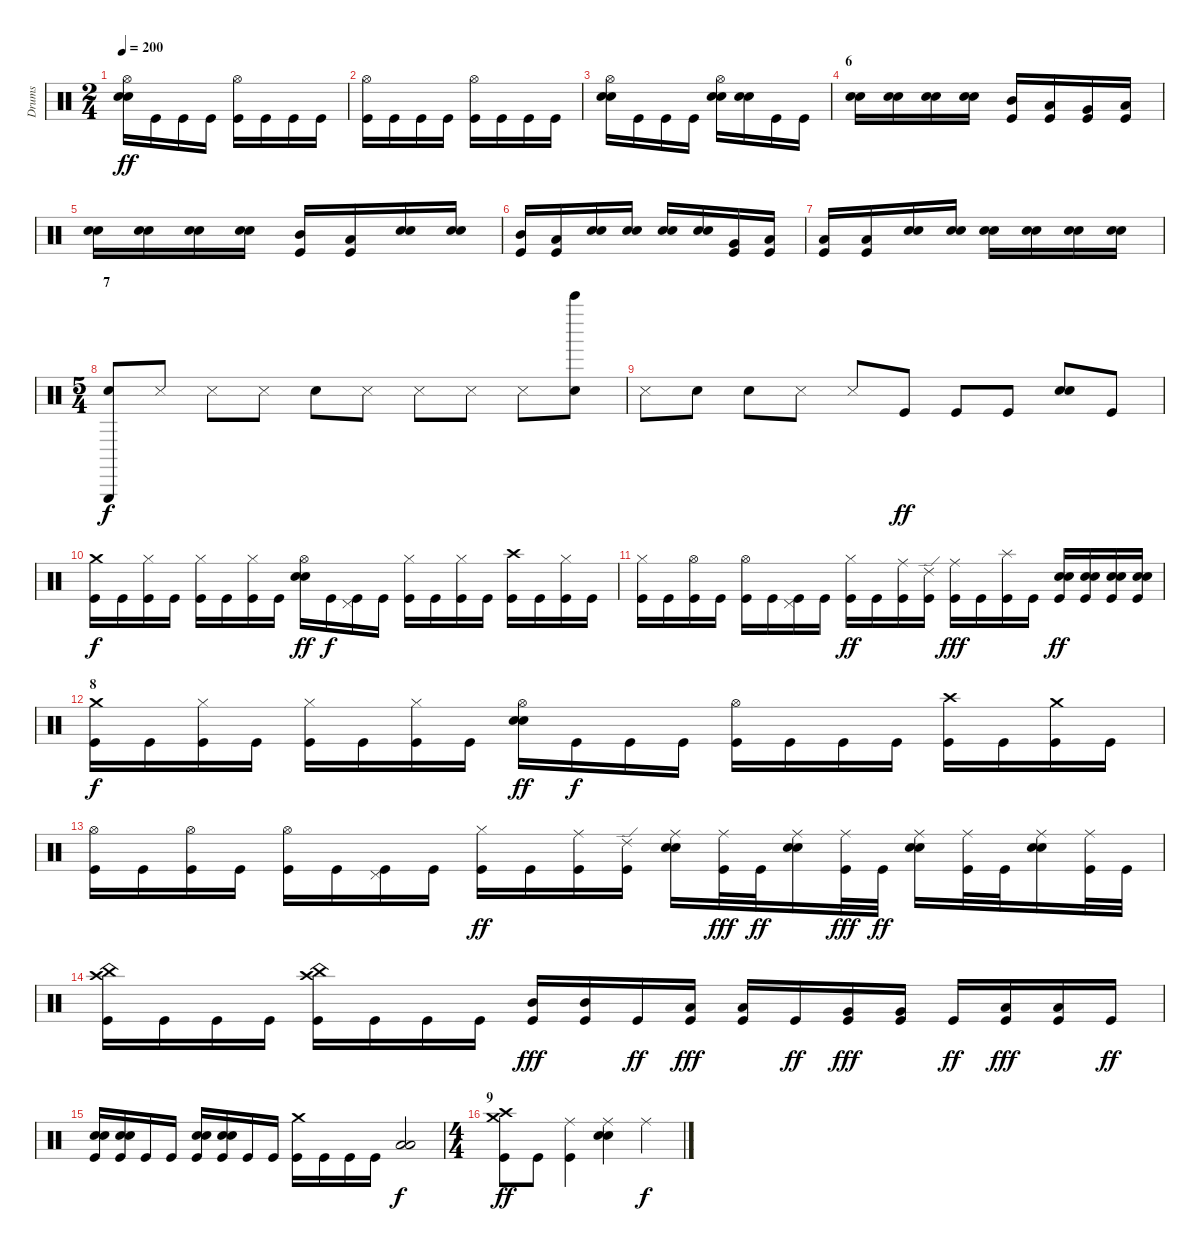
\track ("Drums" "Drums") {instrument percussion}
\staff {score}
\articulation defaults
\ts (2 4)
\tempo 200
\clef neutral
\ks c
("Electric Snare (hit)" "Electric Snare (hit)" "Hi-Hat (open)").16{dy ff} "Kick (hit)".16 "Kick (hit)".16 "Kick (hit)".16 ("Kick (hit)" "Hi-Hat (open)").16 "Kick (hit)".16 "Kick (hit)".16 "Kick (hit)".16 |
("Kick (hit)" "Hi-Hat (open)").16 "Kick (hit)".16 "Kick (hit)".16 "Kick (hit)".16 ("Kick (hit)" "Hi-Hat (open)").16 "Kick (hit)".16 "Kick (hit)".16 "Kick (hit)".16 |
("Electric Snare (hit)" "Electric Snare (hit)" "Hi-Hat (open)").16 "Kick (hit)".16 "Kick (hit)".16 "Kick (hit)".16 ("Electric Snare (hit)" "Electric Snare (hit)" "Hi-Hat (open)").16 ("Electric Snare (hit)" "Electric Snare (hit)").16 "Kick (hit)".16 "Kick (hit)".16 |
\section ("" "6")
("Electric Snare (hit)" "Electric Snare (hit)").16 ("Electric Snare (hit)" "Electric Snare (hit)").16 ("Electric Snare (hit)" "Electric Snare (hit)").16 ("Electric Snare (hit)" "Electric Snare (hit)").16 ("Kick (hit)" "Mid Tom (hit)").16 ("Kick (hit)" "Low Tom (hit)").16 ("Kick (hit)" "Very Low Tom (hit)").16 ("Kick (hit)" "Low Floor Tom (hit)").16 |
("Electric Snare (hit)" "Electric Snare (hit)").16 ("Electric Snare (hit)" "Electric Snare (hit)").16 ("Electric Snare (hit)" "Electric Snare (hit)").16 ("Electric Snare (hit)" "Electric Snare (hit)").16 ("Kick (hit)" "Mid Tom (hit)").16 ("Kick (hit)" "Low Tom (hit)").16 ("Electric Snare (hit)" "Electric Snare (hit)").16 ("Electric Snare (hit)" "Electric Snare (hit)").16 |
("Kick (hit)" "Mid Tom (hit)").16 ("Kick (hit)" "Low Tom (hit)").16 ("Electric Snare (hit)" "Electric Snare (hit)").16 ("Electric Snare (hit)" "Electric Snare (hit)").16 ("Electric Snare (hit)" "Electric Snare (hit)").16 ("Electric Snare (hit)" "Electric Snare (hit)").16 ("Kick (hit)" "Very Low Tom (hit)").16 ("Kick (hit)" "Low Floor Tom (hit)").16 |
("Kick (hit)" "Low Floor Tom (hit)").16 ("Kick (hit)" "Low Floor Tom (hit)").16 ("Electric Snare (hit)" "Electric Snare (hit)").16 ("Electric Snare (hit)" "Electric Snare (hit)").16 ("Electric Snare (hit)" "Electric Snare (hit)").16 ("Electric Snare (hit)" "Electric Snare (hit)").16 ("Electric Snare (hit)" "Electric Snare (hit)").16 ("Electric Snare (hit)" "Electric Snare (hit)").16 |
\ts (5 4)
\section ("" "7")
("Metronome (bell)" "Triangle (hit)").8{dy f} "Metronome (hit)".8 "Metronome (hit)".8 "Metronome (hit)".8 "Metronome (bell)".8 "Metronome (hit)".8 "Metronome (hit)".8 "Metronome (hit)".8 "Metronome (hit)".8 ("Metronome (bell)" "Bell Tree (hit)").8 |
"Metronome (hit)".8 "Metronome (bell)".8 "Metronome (bell)".8 "Metronome (hit)".8 "Metronome (hit)".8 "Kick (hit)".8{dy ff} "Kick (hit)".8 "Kick (hit)".8 ("Electric Snare (hit)" "Electric Snare (hit)").8 "Kick (hit)".8 |
("Kick (hit)" "Crash medium (hit)").16{dy f} "Kick (hit)".16 ("Kick (hit)" "Hi-Hat (closed)").16 "Kick (hit)".16 ("Kick (hit)" "Hi-Hat (closed)").16 "Kick (hit)".16 ("Kick (hit)" "Hi-Hat (closed)").16 "Kick (hit)".16 ("Electric Snare (hit)" "Electric Snare (hit)" "Hi-Hat (open)").16{dy ff} "Kick (hit)".16{dy f} ("Kick (hit)" "Pedal Hi-Hat (hit)").16 "Kick (hit)".16 ("Kick (hit)" "Hi-Hat (closed)").16 "Kick (hit)".16 ("Kick (hit)" "Hi-Hat (closed)").16 "Kick (hit)".16 ("Kick (hit)" "Crash high (hit)").16 "Kick (hit)".16 ("Kick (hit)" "Hi-Hat (closed)").16 "Kick (hit)".16 |
("Kick (hit)" "Hi-Hat (closed)").16 "Kick (hit)".16 ("Kick (hit)" "Hi-Hat (open)").16 "Kick (hit)".16 ("Kick (hit)" "Hi-Hat (open)").16 "Kick (hit)".16 ("Kick (hit)" "Pedal Hi-Hat (hit)").16 "Kick (hit)".16 ("Kick (hit)" "Hi-Hat (closed)").16{dy ff} "Kick (hit)".16 ("Kick (hit)" "Ride (middle)").16 ("Kick (hit)" "Ride (edge) 2").16 ("Kick (hit)" "Ride (middle)").16{dy fff} "Kick (hit)".16 ("Kick (hit)" "Splash (hit)").16 "Kick (hit)".16 ("Kick (hit)" "Electric Snare (hit)" "Electric Snare (hit)").16{dy ff} ("Kick (hit)" "Electric Snare (hit)" "Electric Snare (hit)").16 ("Kick (hit)" "Electric Snare (hit)" "Electric Snare (hit)").16 ("Kick (hit)" "Electric Snare (hit)" "Electric Snare (hit)").16 |
\section ("" "8")
("Kick (hit)" "Crash medium (hit)").16{dy f} "Kick (hit)".16 ("Kick (hit)" "Hi-Hat (closed)").16 "Kick (hit)".16 ("Kick (hit)" "Hi-Hat (closed)").16 "Kick (hit)".16 ("Kick (hit)" "Hi-Hat (closed)").16 "Kick (hit)".16 ("Electric Snare (hit)" "Electric Snare (hit)" "Hi-Hat (open)").16{dy ff} "Kick (hit)".16{dy f} "Kick (hit)".16 "Kick (hit)".16 ("Kick (hit)" "Hi-Hat (open)").16 "Kick (hit)".16 "Kick (hit)".16 "Kick (hit)".16 ("Kick (hit)" "Crash high (hit)").16 "Kick (hit)".16 ("Kick (hit)" "Crash medium (hit)").16 "Kick (hit)".16 |
("Kick (hit)" "Hi-Hat (open)").16 "Kick (hit)".16 ("Kick (hit)" "Hi-Hat (open)").16 "Kick (hit)".16 ("Kick (hit)" "Hi-Hat (open)").16 "Kick (hit)".16 ("Kick (hit)" "Pedal Hi-Hat (hit)").16 "Kick (hit)".16 ("Kick (hit)" "Hi-Hat (closed)").16{dy ff} "Kick (hit)".16 ("Kick (hit)" "Ride (middle)").16 ("Kick (hit)" "Ride (edge) 2").16 ("Electric Snare (hit)" "Electric Snare (hit)" "Ride (middle)").16 ("Kick (hit)" "Ride (middle)").32{dy fff} "Kick (hit)".32{dy ff} ("Electric Snare (hit)" "Electric Snare (hit)" "Ride (middle)").16 ("Kick (hit)" "Ride (middle)").32{dy fff} "Kick (hit)".32{dy ff} ("Electric Snare (hit)" "Electric Snare (hit)" "Ride (middle)").16 ("Kick (hit)" "Ride (middle)").32 "Kick (hit)".32 ("Electric Snare (hit)" "Electric Snare (hit)" "Ride (middle)").16 ("Kick (hit)" "Ride (middle)").32 "Kick (hit)".32 |
("Kick (hit)" "Crash high (hit)" "China (hit)").16 "Kick (hit)".16 "Kick (hit)".16 "Kick (hit)".16 ("Kick (hit)" "Crash high (hit)" "China (hit)").16 "Kick (hit)".16 "Kick (hit)".16 "Kick (hit)".16 ("Kick (hit)" "Mid Tom (hit)").16{dy fff} ("Kick (hit)" "Mid Tom (hit)").16 "Kick (hit)".16{dy ff} ("Kick (hit)" "Low Tom (hit)").16{dy fff} ("Kick (hit)" "Low Tom (hit)").16 "Kick (hit)".16{dy ff} ("Kick (hit)" "Very Low Tom (hit)").16{dy fff} ("Kick (hit)" "Very Low Tom (hit)").16 "Kick (hit)".16{dy ff} ("Kick (hit)" "Low Floor Tom (hit)").16{dy fff} ("Kick (hit)" "Low Floor Tom (hit)").16 "Kick (hit)".16{dy ff} |
("Kick (hit)" "Electric Snare (hit)" "Electric Snare (hit)").16 ("Kick (hit)" "Electric Snare (hit)" "Electric Snare (hit)").16 "Kick (hit)".16 "Kick (hit)".16 ("Kick (hit)" "Electric Snare (hit)" "Electric Snare (hit)").16 ("Kick (hit)" "Electric Snare (hit)" "Electric Snare (hit)").16 "Kick (hit)".16 "Kick (hit)".16 ("Kick (hit)" "Crash medium (hit)").16 "Kick (hit)".16 "Kick (hit)".16 "Kick (hit)".16 ("Low Floor Tom (hit)" "Low Floor Tom (hit)").2{dy f} |
\ts (4 4)
\section ("" "9")
("Kick (hit)" "Crash high (hit)" "Crash medium (hit)").8{dy ff} "Kick (hit)".8 ("Kick (hit)" "Ride (middle)").4 ("Electric Snare (hit)" "Electric Snare (hit)" "Ride (middle)").4 "Ride (middle)".4{dy f}
